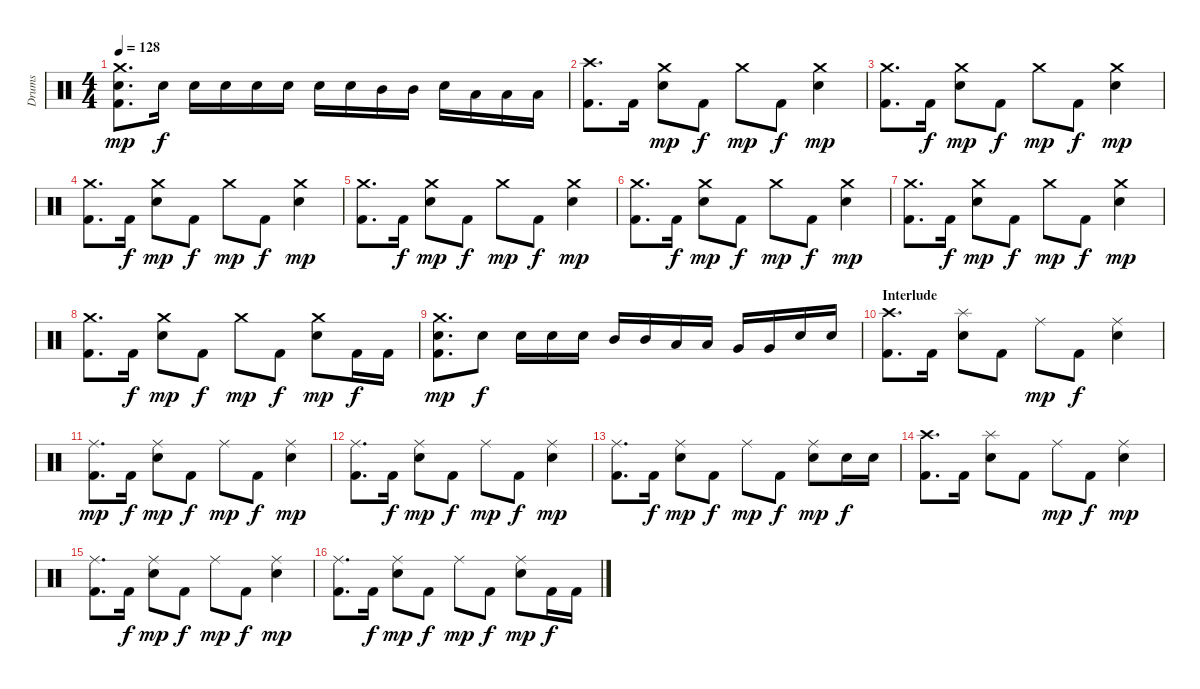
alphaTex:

\track ("Drums" "Drums") {instrument percussion}
\staff {score}
\articulation defaults
\ts (4 4)
\tempo 128
\clef neutral
\ks c
("Crash medium (hit)" "Electric Snare (hit)" "Kick (hit) 2").8{d dy mp} "Electric Snare (hit)".16{dy f} "Electric Snare (hit)".16 "Electric Snare (hit)".16 "Electric Snare (hit)".16 "Electric Snare (hit)".16 "Electric Snare (hit)".16 "Electric Snare (hit)".16 "Mid Tom (hit)".16 "Mid Tom (hit)".16 "Electric Snare (hit)".16 "Low Tom (hit)".16 "Low Tom (hit)".16 "Low Tom (hit)".16 |
("Crash high (hit)" "Kick (hit) 2").8{d} "Kick (hit) 2".16 ("Crash medium (hit)" "Electric Snare (hit)").8{dy mp} "Kick (hit) 2".8{dy f} "Crash medium (hit)".8{dy mp} "Kick (hit) 2".8{dy f} ("Crash medium (hit)" "Electric Snare (hit)").4{dy mp} |
("Crash medium (hit)" "Kick (hit) 2").8{d} "Kick (hit) 2".16{dy f} ("Crash medium (hit)" "Electric Snare (hit)").8{dy mp} "Kick (hit) 2".8{dy f} "Crash medium (hit)".8{dy mp} "Kick (hit) 2".8{dy f} ("Crash medium (hit)" "Electric Snare (hit)").4{dy mp} |
("Crash medium (hit)" "Kick (hit) 2").8{d} "Kick (hit) 2".16{dy f} ("Crash medium (hit)" "Electric Snare (hit)").8{dy mp} "Kick (hit) 2".8{dy f} "Crash medium (hit)".8{dy mp} "Kick (hit) 2".8{dy f} ("Crash medium (hit)" "Electric Snare (hit)").4{dy mp} |
("Crash medium (hit)" "Kick (hit) 2").8{d} "Kick (hit) 2".16{dy f} ("Crash medium (hit)" "Electric Snare (hit)").8{dy mp} "Kick (hit) 2".8{dy f} "Crash medium (hit)".8{dy mp} "Kick (hit) 2".8{dy f} ("Crash medium (hit)" "Electric Snare (hit)").4{dy mp} |
("Crash medium (hit)" "Kick (hit) 2").8{d} "Kick (hit) 2".16{dy f} ("Crash medium (hit)" "Electric Snare (hit)").8{dy mp} "Kick (hit) 2".8{dy f} "Crash medium (hit)".8{dy mp} "Kick (hit) 2".8{dy f} ("Crash medium (hit)" "Electric Snare (hit)").4{dy mp} |
("Crash medium (hit)" "Kick (hit) 2").8{d} "Kick (hit) 2".16{dy f} ("Crash medium (hit)" "Electric Snare (hit)").8{dy mp} "Kick (hit) 2".8{dy f} "Crash medium (hit)".8{dy mp} "Kick (hit) 2".8{dy f} ("Crash medium (hit)" "Electric Snare (hit)").4{dy mp} |
("Crash medium (hit)" "Kick (hit) 2").8{d} "Kick (hit) 2".16{dy f} ("Crash medium (hit)" "Electric Snare (hit)").8{dy mp} "Kick (hit) 2".8{dy f} "Crash medium (hit)".8{dy mp} "Kick (hit) 2".8{dy f} ("Crash medium (hit)" "Electric Snare (hit)").8{dy mp} "Kick (hit) 2".16{dy f} "Kick (hit) 2".16 |
("Crash medium (hit)" "Electric Snare (hit)" "Kick (hit) 2").8{d dy mp} "Electric Snare (hit)".8{dy f} "Electric Snare (hit)".16 "Electric Snare (hit)".16 "Electric Snare (hit)".16 "Mid Tom (hit)".16 "Mid Tom (hit)".16 "Low Tom (hit)".16 "Low Tom (hit)".16 "Very Low Tom (hit)".16 "Very Low Tom (hit)".16 "Electric Snare (hit)".16 "Electric Snare (hit)".16 |
\section ("" "Interlude")
("Crash high (hit)" "Kick (hit) 2").8{d} "Kick (hit) 2".16 ("Splash (hit)" "Electric Snare (hit)").8 "Kick (hit) 2".8 "Ride (middle)".8{dy mp} "Kick (hit) 2".8{dy f} ("Ride (middle)" "Electric Snare (hit)").4 |
("Ride (middle)" "Kick (hit) 2").8{d dy mp} "Kick (hit) 2".16{dy f} ("Ride (middle)" "Electric Snare (hit)").8{dy mp} "Kick (hit) 2".8{dy f} "Ride (middle)".8{dy mp} "Kick (hit) 2".8{dy f} ("Ride (middle)" "Electric Snare (hit)").4{dy mp} |
("Ride (middle)" "Kick (hit) 2").8{d} "Kick (hit) 2".16{dy f} ("Ride (middle)" "Electric Snare (hit)").8{dy mp} "Kick (hit) 2".8{dy f} "Ride (middle)".8{dy mp} "Kick (hit) 2".8{dy f} ("Ride (middle)" "Electric Snare (hit)").4{dy mp} |
("Ride (middle)" "Kick (hit) 2").8{d} "Kick (hit) 2".16{dy f} ("Ride (middle)" "Electric Snare (hit)").8{dy mp} "Kick (hit) 2".8{dy f} "Ride (middle)".8{dy mp} "Kick (hit) 2".8{dy f} ("Ride (middle)" "Electric Snare (hit)").8{dy mp} "Electric Snare (hit)".16{dy f} "Electric Snare (hit)".16 |
("Crash high (hit)" "Kick (hit) 2").8{d} "Kick (hit) 2".16 ("Splash (hit)" "Electric Snare (hit)").8 "Kick (hit) 2".8 "Ride (middle)".8{dy mp} "Kick (hit) 2".8{dy f} ("Ride (middle)" "Electric Snare (hit)").4{dy mp} |
("Ride (middle)" "Kick (hit) 2").8{d} "Kick (hit) 2".16{dy f} ("Ride (middle)" "Electric Snare (hit)").8{dy mp} "Kick (hit) 2".8{dy f} "Ride (middle)".8{dy mp} "Kick (hit) 2".8{dy f} ("Ride (middle)" "Electric Snare (hit)").4{dy mp} |
("Ride (middle)" "Kick (hit) 2").8{d} "Kick (hit) 2".16{dy f} ("Ride (middle)" "Electric Snare (hit)").8{dy mp} "Kick (hit) 2".8{dy f} "Ride (middle)".8{dy mp} "Kick (hit) 2".8{dy f} ("Ride (middle)" "Electric Snare (hit)").8{dy mp} "Kick (hit) 2".16{dy f} "Kick (hit) 2".16
